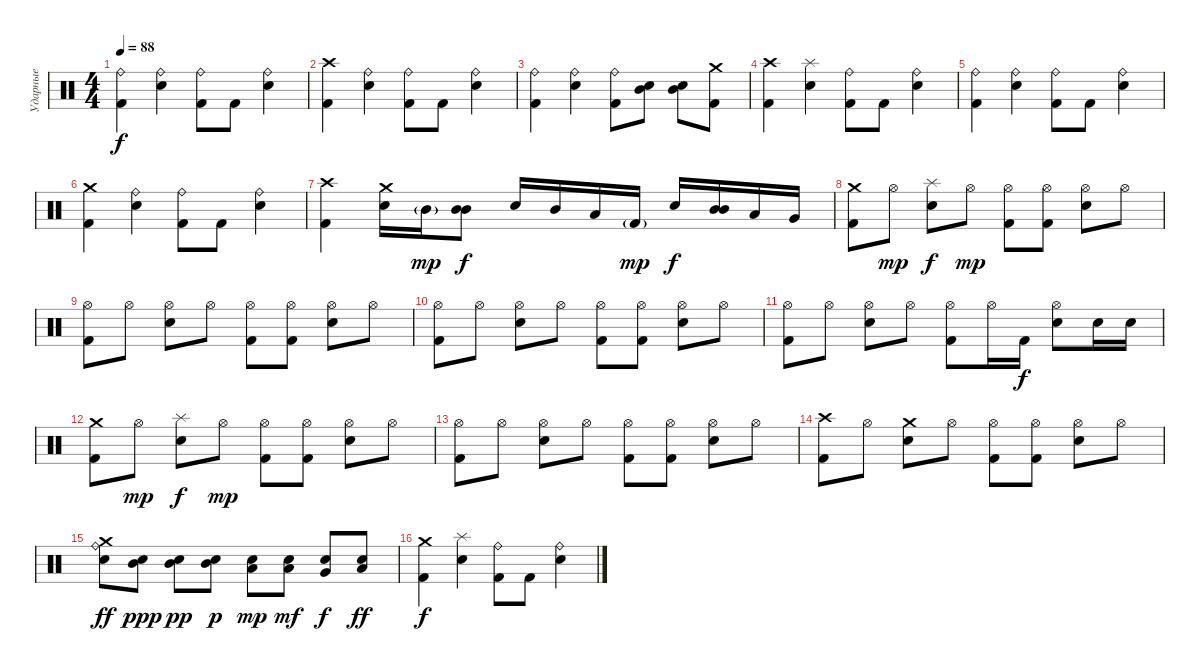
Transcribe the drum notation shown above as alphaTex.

\track ("Ударные" "Ударные") {instrument percussion}
\staff {score}
\articulation defaults
\ts (4 4)
\tempo 88
\clef neutral
\ks c
("Ride (bell)" "Kick (hit) 2").4{dy f} ("Ride (bell)" "Electric Snare (hit)").4 ("Ride (bell)" "Kick (hit) 2").8 "Kick (hit) 2".8 ("Ride (bell)" "Electric Snare (hit)").4 |
("Crash high (hit)" "Kick (hit) 2").4 ("Ride (bell)" "Electric Snare (hit)").4 ("Ride (bell)" "Kick (hit) 2").8 "Kick (hit) 2".8 ("Ride (bell)" "Electric Snare (hit)").4 |
("Ride (bell)" "Kick (hit) 2").4 ("Ride (bell)" "Electric Snare (hit)").4 ("Ride (bell)" "Kick (hit) 2").8 ("Mid Tom (hit)" "Electric Snare (hit)").8 ("Mid Tom (hit)" "Electric Snare (hit)").8 ("Crash medium (hit)" "Kick (hit) 2").8 |
("Crash high (hit)" "Kick (hit) 2").4 ("Splash (hit)" "Electric Snare (hit)").4 ("Ride (bell)" "Kick (hit) 2").8 "Kick (hit) 2".8 ("Ride (bell)" "Electric Snare (hit)").4 |
("Ride (bell)" "Kick (hit) 2").4 ("Ride (bell)" "Electric Snare (hit)").4 ("Ride (bell)" "Kick (hit) 2").8 "Kick (hit) 2".8 ("Ride (bell)" "Electric Snare (hit)").4 |
("Crash medium (hit)" "Kick (hit) 2").4 ("Ride (bell)" "Electric Snare (hit)").4 ("Ride (bell)" "Kick (hit) 2").8 "Kick (hit) 2".8 ("Ride (bell)" "Electric Snare (hit)").4 |
("Crash high (hit)" "Kick (hit) 2").4 ("Crash medium (hit)" "Electric Snare (hit)").16 "Mid Tom (hit)"{g}.16{dy mp} ("Mid Tom (hit)" "Mid Tom (hit)").8{bu 120 dy f} "Electric Snare (hit)".16 "Mid Tom (hit)".16 "Low Tom (hit)".16 "Kick (hit) 2"{g}.16{dy mp} "Electric Snare (hit)".16{dy f} ("Mid Tom (hit)" "Mid Tom (hit)").16{bd 120} "Low Tom (hit)".16 "Very Low Tom (hit)".16 |
("Crash medium (hit)" "Kick (hit) 2").8 "Hi-Hat (open)".8{dy mp} ("Splash (hit)" "Electric Snare (hit)").8{dy f} "Hi-Hat (open)".8{dy mp} ("Hi-Hat (open)" "Kick (hit) 2").8 ("Hi-Hat (open)" "Kick (hit) 2").8 ("Hi-Hat (open)" "Electric Snare (hit)").8 "Hi-Hat (open)".8 |
("Hi-Hat (open)" "Kick (hit) 2").8 "Hi-Hat (open)".8 ("Hi-Hat (open)" "Electric Snare (hit)").8 "Hi-Hat (open)".8 ("Hi-Hat (open)" "Kick (hit) 2").8 ("Hi-Hat (open)" "Kick (hit) 2").8 ("Hi-Hat (open)" "Electric Snare (hit)").8 "Hi-Hat (open)".8 |
("Hi-Hat (open)" "Kick (hit) 2").8 "Hi-Hat (open)".8 ("Hi-Hat (open)" "Electric Snare (hit)").8 "Hi-Hat (open)".8 ("Hi-Hat (open)" "Kick (hit) 2").8 ("Hi-Hat (open)" "Kick (hit) 2").8 ("Hi-Hat (open)" "Electric Snare (hit)").8 "Hi-Hat (open)".8 |
("Hi-Hat (open)" "Kick (hit) 2").8 "Hi-Hat (open)".8 ("Hi-Hat (open)" "Electric Snare (hit)").8 "Hi-Hat (open)".8 ("Hi-Hat (open)" "Kick (hit) 2").8 "Hi-Hat (open)".16 "Kick (hit) 2".16{dy f} ("Hi-Hat (open)" "Electric Snare (hit)").8 "Electric Snare (hit)".16 "Electric Snare (hit)".16 |
("Crash medium (hit)" "Kick (hit) 2").8 "Hi-Hat (open)".8{dy mp} ("Splash (hit)" "Electric Snare (hit)").8{dy f} "Hi-Hat (open)".8{dy mp} ("Hi-Hat (open)" "Kick (hit) 2").8 ("Hi-Hat (open)" "Kick (hit) 2").8 ("Hi-Hat (open)" "Electric Snare (hit)").8 "Hi-Hat (open)".8 |
("Hi-Hat (open)" "Kick (hit) 2").8 "Hi-Hat (open)".8 ("Hi-Hat (open)" "Electric Snare (hit)").8 "Hi-Hat (open)".8 ("Hi-Hat (open)" "Kick (hit) 2").8 ("Hi-Hat (open)" "Kick (hit) 2").8 ("Hi-Hat (open)" "Electric Snare (hit)").8 "Hi-Hat (open)".8 |
("Crash high (hit)" "Kick (hit) 2").8 "Hi-Hat (open)".8 ("Crash medium (hit)" "Electric Snare (hit)").8 "Hi-Hat (open)".8 ("Hi-Hat (open)" "Kick (hit) 2").8 ("Hi-Hat (open)" "Kick (hit) 2").8 ("Hi-Hat (open)" "Electric Snare (hit)").8 "Hi-Hat (open)".8 |
("Ride (bell)" "Crash medium (hit)" "Electric Snare (hit)").8{dy ff} ("Electric Snare (hit)" "Mid Tom (hit)").8{dy ppp} ("Electric Snare (hit)" "Mid Tom (hit)").8{dy pp} ("Electric Snare (hit)" "Mid Tom (hit)").8{dy p} ("Electric Snare (hit)" "Low Tom (hit)").8{dy mp} ("Electric Snare (hit)" "Low Tom (hit)").8{dy mf} ("Electric Snare (hit)" "Very Low Tom (hit)").8{dy f} ("Electric Snare (hit)" "Low Floor Tom (hit)").8{dy ff} |
("Crash medium (hit)" "Kick (hit) 2").4{dy f} ("Splash (hit)" "Electric Snare (hit)").4 ("Ride (bell)" "Kick (hit) 2").8 "Kick (hit) 2".8 ("Ride (bell)" "Electric Snare (hit)").4
